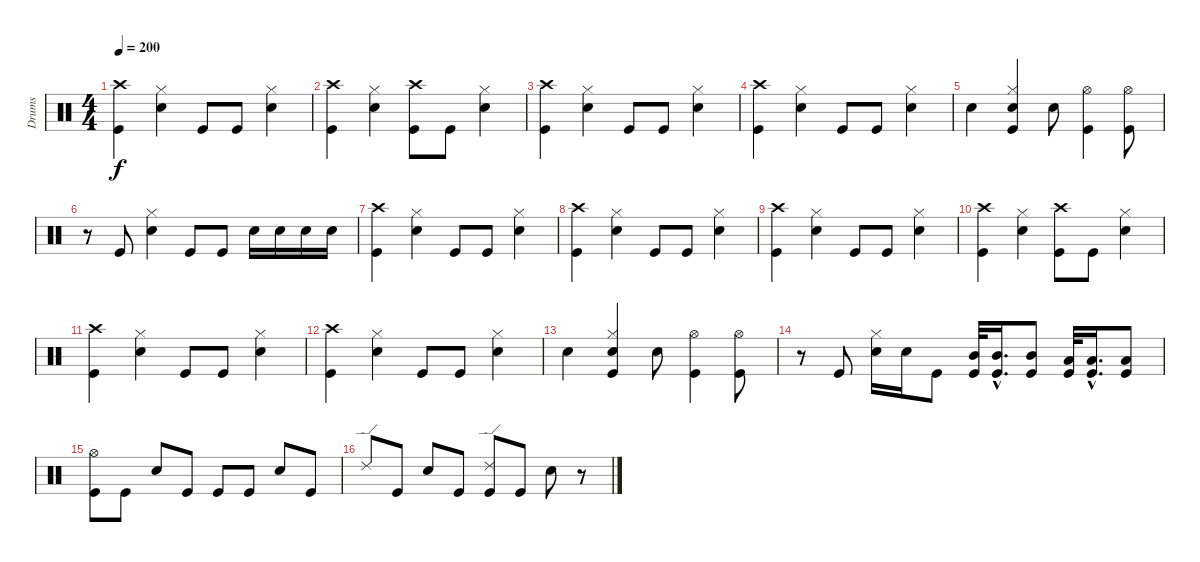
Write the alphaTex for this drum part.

\track ("Drums" "Drums") {instrument percussion}
\staff {score}
\articulation defaults
\ts (4 4)
\tempo 200
\clef neutral
\ks c
("Crash high (hit)" "Kick (hit)").4{dy f} ("Hi-Hat (closed)" "Snare (hit) 2").4 "Kick (hit)".8 "Kick (hit)".8 ("Hi-Hat (closed)" "Snare (hit) 2").4 |
("Crash high (hit)" "Kick (hit)").4 ("Hi-Hat (closed)" "Snare (hit) 2").4 ("Crash high (hit)" "Kick (hit)").8 "Kick (hit)".8 ("Hi-Hat (closed)" "Snare (hit) 2").4 |
("Crash high (hit)" "Kick (hit)").4 ("Hi-Hat (closed)" "Snare (hit) 2").4 "Kick (hit)".8 "Kick (hit)".8 ("Hi-Hat (closed)" "Snare (hit) 2").4 |
("Crash high (hit)" "Kick (hit)").4 ("Hi-Hat (closed)" "Snare (hit) 2").4 "Kick (hit)".8 "Kick (hit)".8 ("Hi-Hat (closed)" "Snare (hit) 2").4 |
"Snare (hit) 2".4 ("Hi-Hat (closed)" "Snare (hit) 2" "Kick (hit)").4 "Snare (hit) 2".8 ("Hi-Hat (open)" "Kick (hit)").4 ("Hi-Hat (open)" "Kick (hit)").8 |
r.8 "Kick (hit)".8 ("Hi-Hat (closed)" "Snare (hit) 2").4 "Kick (hit)".8 "Kick (hit)".8 "Snare (hit) 2".16 "Snare (hit) 2".16 "Snare (hit) 2".16 "Snare (hit) 2".16 |
("Crash high (hit)" "Kick (hit)").4 ("Hi-Hat (closed)" "Snare (hit) 2").4 "Kick (hit)".8 "Kick (hit)".8 ("Hi-Hat (closed)" "Snare (hit) 2").4 |
("Crash high (hit)" "Kick (hit)").4 ("Hi-Hat (closed)" "Snare (hit) 2").4 "Kick (hit)".8 "Kick (hit)".8 ("Hi-Hat (closed)" "Snare (hit) 2").4 |
("Crash high (hit)" "Kick (hit)").4 ("Hi-Hat (closed)" "Snare (hit) 2").4 "Kick (hit)".8 "Kick (hit)".8 ("Hi-Hat (closed)" "Snare (hit) 2").4 |
("Crash high (hit)" "Kick (hit)").4 ("Hi-Hat (closed)" "Snare (hit) 2").4 ("Crash high (hit)" "Kick (hit)").8 "Kick (hit)".8 ("Hi-Hat (closed)" "Snare (hit) 2").4 |
("Crash high (hit)" "Kick (hit)").4 ("Hi-Hat (closed)" "Snare (hit) 2").4 "Kick (hit)".8 "Kick (hit)".8 ("Hi-Hat (closed)" "Snare (hit) 2").4 |
("Crash high (hit)" "Kick (hit)").4 ("Hi-Hat (closed)" "Snare (hit) 2").4 "Kick (hit)".8 "Kick (hit)".8 ("Hi-Hat (closed)" "Snare (hit) 2").4 |
"Snare (hit) 2".4 ("Hi-Hat (closed)" "Snare (hit) 2" "Kick (hit)").4 "Snare (hit) 2".8 ("Hi-Hat (open)" "Kick (hit)").4 ("Hi-Hat (open)" "Kick (hit)").8 |
r.8 "Kick (hit)".8 ("Hi-Hat (closed)" "Snare (hit) 2").16 "Snare (hit) 2".16 "Kick (hit)".8 ("Mid Tom (hit)" "Kick (hit)").32 ("Mid Tom (hit)"{hac} "Kick (hit)"{hac}).16{d} ("Mid Tom (hit)" "Kick (hit)").8 ("Low Tom (hit)" "Kick (hit)").32 ("Low Tom (hit)"{hac} "Kick (hit)"{hac}).16{d} ("Low Tom (hit)" "Kick (hit)").8 |
("Hi-Hat (open)" "Kick (hit)").8 "Kick (hit)".8 "Snare (hit) 2".8 "Kick (hit)".8 "Kick (hit)".8 "Kick (hit)".8 "Snare (hit) 2".8 "Kick (hit)".8 |
"Ride (edge) 2".8 "Kick (hit)".8 "Snare (hit) 2".8 "Kick (hit)".8 ("Ride (edge) 2" "Kick (hit)").8 "Kick (hit)".8 "Snare (hit) 2".8 r.8
